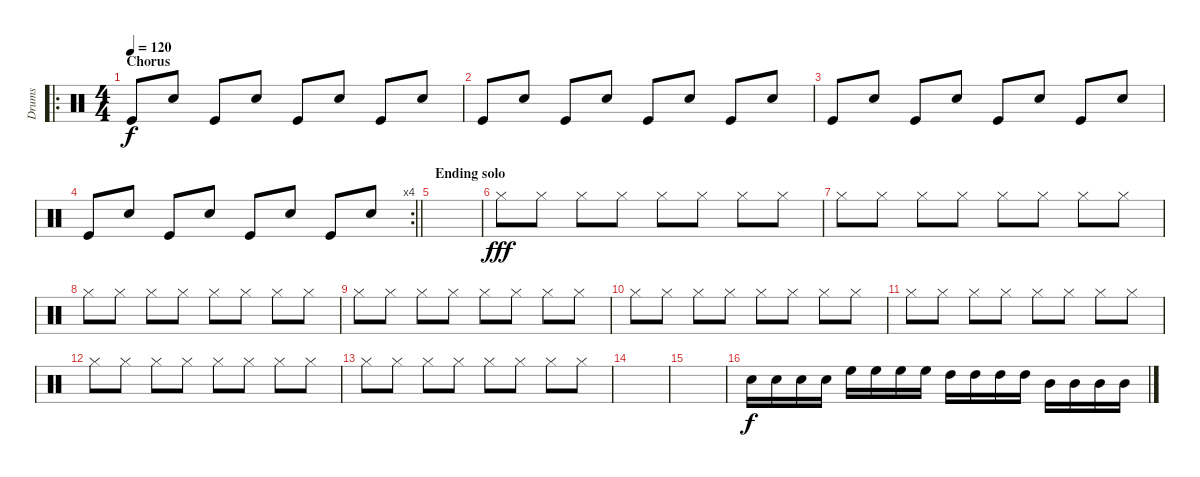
\track ("Drums" "Drums") {instrument percussion}
\staff {score}
\articulation defaults
\ro
\ts (4 4)
\section ("" "Chorus")
\tempo 120
\clef neutral
\ks c "Kick (hit)".8{dy f} "Snare (hit) 2".8 "Kick (hit)".8 "Snare (hit) 2".8 "Kick (hit)".8 "Snare (hit) 2".8 "Kick (hit)".8 "Snare (hit) 2".8
|
"Kick (hit)".8 "Snare (hit) 2".8 "Kick (hit)".8 "Snare (hit) 2".8 "Kick (hit)".8 "Snare (hit) 2".8 "Kick (hit)".8 "Snare (hit) 2".8 |
"Kick (hit)".8 "Snare (hit) 2".8 "Kick (hit)".8 "Snare (hit) 2".8 "Kick (hit)".8 "Snare (hit) 2".8 "Kick (hit)".8 "Snare (hit) 2".8 |
\rc 4
\barLineRight lightlight "Kick (hit)".8 "Snare (hit) 2".8 "Kick (hit)".8 "Snare (hit) 2".8 "Kick (hit)".8 "Snare (hit) 2".8 "Kick (hit)".8 "Snare (hit) 2".8
|
\section ("" "Ending solo")
|
"Hi-Hat (closed)".8{dy fff} "Hi-Hat (closed)".8 "Hi-Hat (closed)".8 "Hi-Hat (closed)".8 "Hi-Hat (closed)".8 "Hi-Hat (closed)".8 "Hi-Hat (closed)".8 "Hi-Hat (closed)".8 |
"Hi-Hat (closed)".8 "Hi-Hat (closed)".8 "Hi-Hat (closed)".8 "Hi-Hat (closed)".8 "Hi-Hat (closed)".8 "Hi-Hat (closed)".8 "Hi-Hat (closed)".8 "Hi-Hat (closed)".8 |
"Hi-Hat (closed)".8 "Hi-Hat (closed)".8 "Hi-Hat (closed)".8 "Hi-Hat (closed)".8 "Hi-Hat (closed)".8 "Hi-Hat (closed)".8 "Hi-Hat (closed)".8 "Hi-Hat (closed)".8 |
"Hi-Hat (closed)".8 "Hi-Hat (closed)".8 "Hi-Hat (closed)".8 "Hi-Hat (closed)".8 "Hi-Hat (closed)".8 "Hi-Hat (closed)".8 "Hi-Hat (closed)".8 "Hi-Hat (closed)".8 |
"Hi-Hat (closed)".8 "Hi-Hat (closed)".8 "Hi-Hat (closed)".8 "Hi-Hat (closed)".8 "Hi-Hat (closed)".8 "Hi-Hat (closed)".8 "Hi-Hat (closed)".8 "Hi-Hat (closed)".8 |
"Hi-Hat (closed)".8 "Hi-Hat (closed)".8 "Hi-Hat (closed)".8 "Hi-Hat (closed)".8 "Hi-Hat (closed)".8 "Hi-Hat (closed)".8 "Hi-Hat (closed)".8 "Hi-Hat (closed)".8 |
"Hi-Hat (closed)".8 "Hi-Hat (closed)".8 "Hi-Hat (closed)".8 "Hi-Hat (closed)".8 "Hi-Hat (closed)".8 "Hi-Hat (closed)".8 "Hi-Hat (closed)".8 "Hi-Hat (closed)".8 |
"Hi-Hat (closed)".8 "Hi-Hat (closed)".8 "Hi-Hat (closed)".8 "Hi-Hat (closed)".8 "Hi-Hat (closed)".8 "Hi-Hat (closed)".8 "Hi-Hat (closed)".8 "Hi-Hat (closed)".8 |
|
|
"Snare (hit) 2".16{dy f} "Snare (hit) 2".16 "Snare (hit) 2".16 "Snare (hit) 2".16 "High Floor Tom (hit)".16 "High Floor Tom (hit)".16 "High Floor Tom (hit)".16 "High Floor Tom (hit)".16 "High Tom (hit)".16 "High Tom (hit)".16 "High Tom (hit)".16 "High Tom (hit)".16 "Mid Tom (hit)".16 "Mid Tom (hit)".16 "Mid Tom (hit)".16 "Mid Tom (hit)".16
